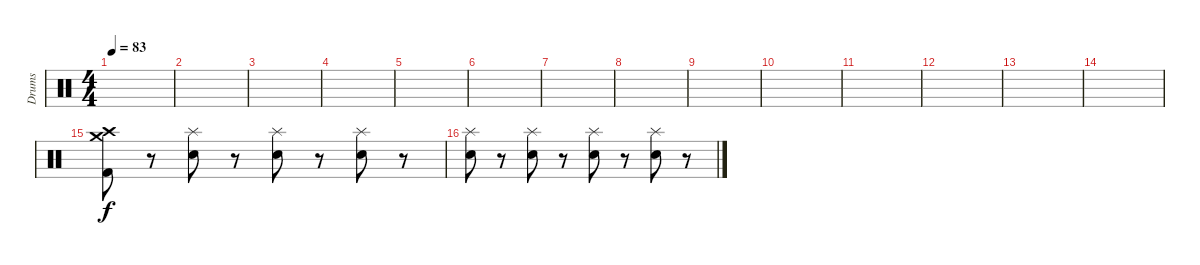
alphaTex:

\track ("Drums" "Drums") {instrument percussion}
\staff {score}
\articulation defaults
\ts (4 4)
\tempo 83
\clef neutral
\ks c
|
|
|
|
|
|
|
|
|
|
|
|
|
|
("Crash medium (hit)" "Crash high (hit)" "Kick (hit) 2").8 r.8 ("Splash (hit)" "Snare (hit) 2").8 r.8 ("Splash (hit)" "Snare (hit) 2").8 r.8 ("Splash (hit)" "Snare (hit) 2").8 r.8 |
("Splash (hit)" "Snare (hit) 2").8 r.8 ("Splash (hit)" "Snare (hit) 2").8 r.8 ("Splash (hit)" "Snare (hit) 2").8 r.8 ("Splash (hit)" "Snare (hit) 2").8 r.8
